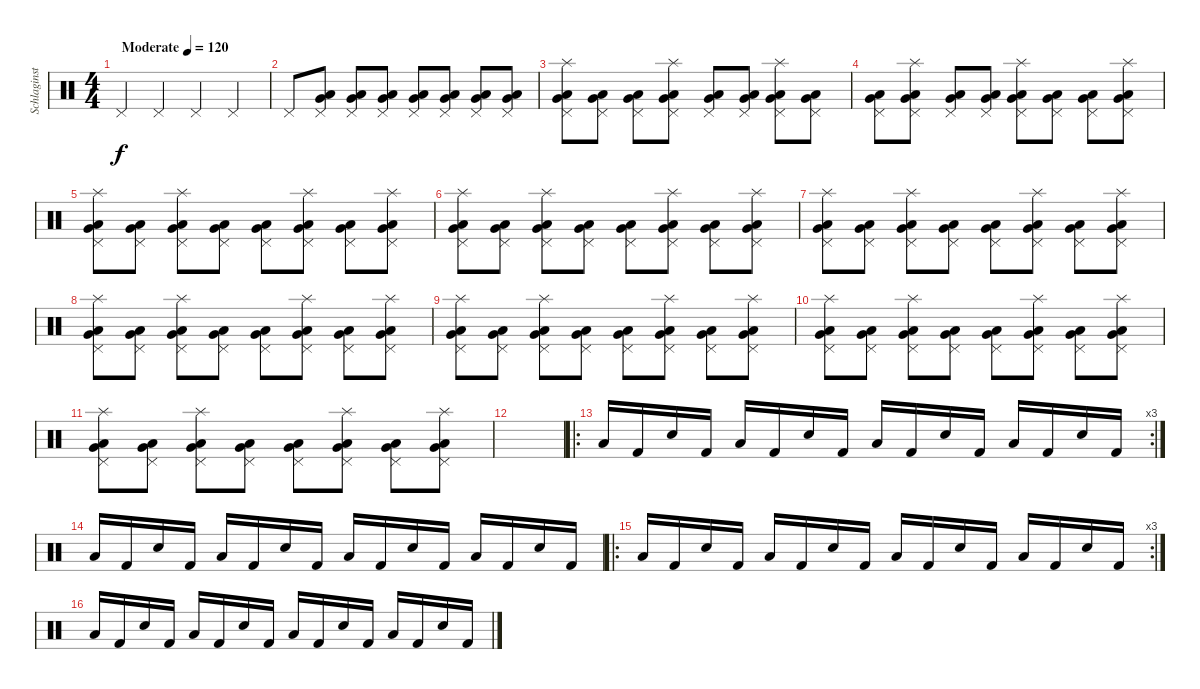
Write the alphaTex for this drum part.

\track ("Schlaginstrumente - Auswahl" "Schlaginst") {instrument percussion}
\staff {score}
\articulation defaults
\ts (4 4)
\tempo (120 "Moderate")
\clef neutral
\ks c "Pedal Hi-Hat (hit)".4{dy f} "Pedal Hi-Hat (hit)".4 "Pedal Hi-Hat (hit)".4 "Pedal Hi-Hat (hit)".4
|
"Pedal Hi-Hat (hit)".8 ("Very Low Tom (hit)" "Pedal Hi-Hat (hit)" "Low Tom (hit)").8 ("Very Low Tom (hit)" "Pedal Hi-Hat (hit)" "Low Tom (hit)").8 ("Very Low Tom (hit)" "Pedal Hi-Hat (hit)" "Low Tom (hit)").8 ("Very Low Tom (hit)" "Pedal Hi-Hat (hit)" "Low Tom (hit)").8 ("Very Low Tom (hit)" "Pedal Hi-Hat (hit)" "Low Tom (hit)").8 ("Very Low Tom (hit)" "Pedal Hi-Hat (hit)" "Low Tom (hit)").8 ("Very Low Tom (hit)" "Pedal Hi-Hat (hit)" "Low Tom (hit)").8 |
("Splash (hit)" "Very Low Tom (hit)" "Pedal Hi-Hat (hit)" "Low Tom (hit)").8 ("Very Low Tom (hit)" "Pedal Hi-Hat (hit)" "Low Tom (hit)").8 ("Very Low Tom (hit)" "Pedal Hi-Hat (hit)" "Low Tom (hit)").8 ("Splash (hit)" "Very Low Tom (hit)" "Pedal Hi-Hat (hit)" "Low Tom (hit)").8 ("Very Low Tom (hit)" "Pedal Hi-Hat (hit)" "Low Tom (hit)").8 ("Very Low Tom (hit)" "Pedal Hi-Hat (hit)" "Low Tom (hit)").8 ("Splash (hit)" "Very Low Tom (hit)" "Pedal Hi-Hat (hit)" "Low Tom (hit)").8 ("Very Low Tom (hit)" "Pedal Hi-Hat (hit)" "Low Tom (hit)").8 |
("Very Low Tom (hit)" "Pedal Hi-Hat (hit)" "Low Tom (hit)").8 ("Splash (hit)" "Very Low Tom (hit)" "Pedal Hi-Hat (hit)" "Low Tom (hit)").8 ("Very Low Tom (hit)" "Pedal Hi-Hat (hit)" "Low Tom (hit)").8 ("Very Low Tom (hit)" "Pedal Hi-Hat (hit)" "Low Tom (hit)").8 ("Splash (hit)" "Very Low Tom (hit)" "Pedal Hi-Hat (hit)" "Low Tom (hit)").8 ("Very Low Tom (hit)" "Pedal Hi-Hat (hit)" "Low Tom (hit)").8 ("Very Low Tom (hit)" "Pedal Hi-Hat (hit)" "Low Tom (hit)").8 ("Splash (hit)" "Very Low Tom (hit)" "Pedal Hi-Hat (hit)" "Low Tom (hit)").8 |
("Splash (hit)" "Very Low Tom (hit)" "Pedal Hi-Hat (hit)" "Low Tom (hit)").8 ("Very Low Tom (hit)" "Pedal Hi-Hat (hit)" "Low Tom (hit)").8 ("Splash (hit)" "Very Low Tom (hit)" "Pedal Hi-Hat (hit)" "Low Tom (hit)").8 ("Very Low Tom (hit)" "Pedal Hi-Hat (hit)" "Low Tom (hit)").8 ("Very Low Tom (hit)" "Pedal Hi-Hat (hit)" "Low Tom (hit)").8 ("Splash (hit)" "Very Low Tom (hit)" "Pedal Hi-Hat (hit)" "Low Tom (hit)").8 ("Very Low Tom (hit)" "Pedal Hi-Hat (hit)" "Low Tom (hit)").8 ("Splash (hit)" "Very Low Tom (hit)" "Pedal Hi-Hat (hit)" "Low Tom (hit)").8 |
("Splash (hit)" "Very Low Tom (hit)" "Pedal Hi-Hat (hit)" "Low Tom (hit)").8 ("Very Low Tom (hit)" "Pedal Hi-Hat (hit)" "Low Tom (hit)").8 ("Splash (hit)" "Very Low Tom (hit)" "Pedal Hi-Hat (hit)" "Low Tom (hit)").8 ("Very Low Tom (hit)" "Pedal Hi-Hat (hit)" "Low Tom (hit)").8 ("Very Low Tom (hit)" "Pedal Hi-Hat (hit)" "Low Tom (hit)").8 ("Splash (hit)" "Very Low Tom (hit)" "Pedal Hi-Hat (hit)" "Low Tom (hit)").8 ("Very Low Tom (hit)" "Pedal Hi-Hat (hit)" "Low Tom (hit)").8 ("Splash (hit)" "Very Low Tom (hit)" "Pedal Hi-Hat (hit)" "Low Tom (hit)").8 |
("Splash (hit)" "Very Low Tom (hit)" "Pedal Hi-Hat (hit)" "Low Tom (hit)").8 ("Very Low Tom (hit)" "Pedal Hi-Hat (hit)" "Low Tom (hit)").8 ("Splash (hit)" "Very Low Tom (hit)" "Pedal Hi-Hat (hit)" "Low Tom (hit)").8 ("Very Low Tom (hit)" "Pedal Hi-Hat (hit)" "Low Tom (hit)").8 ("Very Low Tom (hit)" "Pedal Hi-Hat (hit)" "Low Tom (hit)").8 ("Splash (hit)" "Very Low Tom (hit)" "Pedal Hi-Hat (hit)" "Low Tom (hit)").8 ("Very Low Tom (hit)" "Pedal Hi-Hat (hit)" "Low Tom (hit)").8 ("Splash (hit)" "Very Low Tom (hit)" "Pedal Hi-Hat (hit)" "Low Tom (hit)").8 |
("Splash (hit)" "Very Low Tom (hit)" "Pedal Hi-Hat (hit)" "Low Tom (hit)").8 ("Very Low Tom (hit)" "Pedal Hi-Hat (hit)" "Low Tom (hit)").8 ("Splash (hit)" "Very Low Tom (hit)" "Pedal Hi-Hat (hit)" "Low Tom (hit)").8 ("Very Low Tom (hit)" "Pedal Hi-Hat (hit)" "Low Tom (hit)").8 ("Very Low Tom (hit)" "Pedal Hi-Hat (hit)" "Low Tom (hit)").8 ("Splash (hit)" "Very Low Tom (hit)" "Pedal Hi-Hat (hit)" "Low Tom (hit)").8 ("Very Low Tom (hit)" "Pedal Hi-Hat (hit)" "Low Tom (hit)").8 ("Splash (hit)" "Very Low Tom (hit)" "Pedal Hi-Hat (hit)" "Low Tom (hit)").8 |
("Splash (hit)" "Very Low Tom (hit)" "Pedal Hi-Hat (hit)" "Low Tom (hit)").8 ("Very Low Tom (hit)" "Pedal Hi-Hat (hit)" "Low Tom (hit)").8 ("Splash (hit)" "Very Low Tom (hit)" "Pedal Hi-Hat (hit)" "Low Tom (hit)").8 ("Very Low Tom (hit)" "Pedal Hi-Hat (hit)" "Low Tom (hit)").8 ("Very Low Tom (hit)" "Pedal Hi-Hat (hit)" "Low Tom (hit)").8 ("Splash (hit)" "Very Low Tom (hit)" "Pedal Hi-Hat (hit)" "Low Tom (hit)").8 ("Very Low Tom (hit)" "Pedal Hi-Hat (hit)" "Low Tom (hit)").8 ("Splash (hit)" "Very Low Tom (hit)" "Pedal Hi-Hat (hit)" "Low Tom (hit)").8 |
("Splash (hit)" "Very Low Tom (hit)" "Pedal Hi-Hat (hit)" "Low Tom (hit)").8 ("Very Low Tom (hit)" "Pedal Hi-Hat (hit)" "Low Tom (hit)").8 ("Splash (hit)" "Very Low Tom (hit)" "Pedal Hi-Hat (hit)" "Low Tom (hit)").8 ("Very Low Tom (hit)" "Pedal Hi-Hat (hit)" "Low Tom (hit)").8 ("Very Low Tom (hit)" "Pedal Hi-Hat (hit)" "Low Tom (hit)").8 ("Splash (hit)" "Very Low Tom (hit)" "Pedal Hi-Hat (hit)" "Low Tom (hit)").8 ("Very Low Tom (hit)" "Pedal Hi-Hat (hit)" "Low Tom (hit)").8 ("Splash (hit)" "Very Low Tom (hit)" "Pedal Hi-Hat (hit)" "Low Tom (hit)").8 |
("Splash (hit)" "Very Low Tom (hit)" "Pedal Hi-Hat (hit)" "Low Tom (hit)").8 ("Very Low Tom (hit)" "Pedal Hi-Hat (hit)" "Low Tom (hit)").8 ("Splash (hit)" "Very Low Tom (hit)" "Pedal Hi-Hat (hit)" "Low Tom (hit)").8 ("Very Low Tom (hit)" "Pedal Hi-Hat (hit)" "Low Tom (hit)").8 ("Very Low Tom (hit)" "Pedal Hi-Hat (hit)" "Low Tom (hit)").8 ("Splash (hit)" "Very Low Tom (hit)" "Pedal Hi-Hat (hit)" "Low Tom (hit)").8 ("Very Low Tom (hit)" "Pedal Hi-Hat (hit)" "Low Tom (hit)").8 ("Splash (hit)" "Very Low Tom (hit)" "Pedal Hi-Hat (hit)" "Low Tom (hit)").8 |
|
\ro
\rc 3 "Low Tom (hit)".16 "Kick (hit) 2".16 "Electric Snare (hit)".16 "Kick (hit) 2".16 "Low Tom (hit)".16 "Kick (hit) 2".16 "Electric Snare (hit)".16 "Kick (hit) 2".16 "Low Tom (hit)".16 "Kick (hit) 2".16 "Electric Snare (hit)".16 "Kick (hit) 2".16 "Low Tom (hit)".16 "Kick (hit) 2".16 "Electric Snare (hit)".16 "Kick (hit) 2".16
|
"Low Tom (hit)".16 "Kick (hit) 2".16 "Electric Snare (hit)".16 "Kick (hit) 2".16 "Low Tom (hit)".16 "Kick (hit) 2".16 "Electric Snare (hit)".16 "Kick (hit) 2".16 "Low Tom (hit)".16 "Kick (hit) 2".16 "Electric Snare (hit)".16 "Kick (hit) 2".16 "Low Tom (hit)".16 "Kick (hit) 2".16 "Electric Snare (hit)".16 "Kick (hit) 2".16 |
\ro
\rc 3 "Low Tom (hit)".16 "Kick (hit) 2".16 "Electric Snare (hit)".16 "Kick (hit) 2".16 "Low Tom (hit)".16 "Kick (hit) 2".16 "Electric Snare (hit)".16 "Kick (hit) 2".16 "Low Tom (hit)".16 "Kick (hit) 2".16 "Electric Snare (hit)".16 "Kick (hit) 2".16 "Low Tom (hit)".16 "Kick (hit) 2".16 "Electric Snare (hit)".16 "Kick (hit) 2".16
|
"Low Tom (hit)".16 "Kick (hit) 2".16 "Electric Snare (hit)".16 "Kick (hit) 2".16 "Low Tom (hit)".16 "Kick (hit) 2".16 "Electric Snare (hit)".16 "Kick (hit) 2".16 "Low Tom (hit)".16 "Kick (hit) 2".16 "Electric Snare (hit)".16 "Kick (hit) 2".16 "Low Tom (hit)".16 "Kick (hit) 2".16 "Electric Snare (hit)".16 "Kick (hit) 2".16
